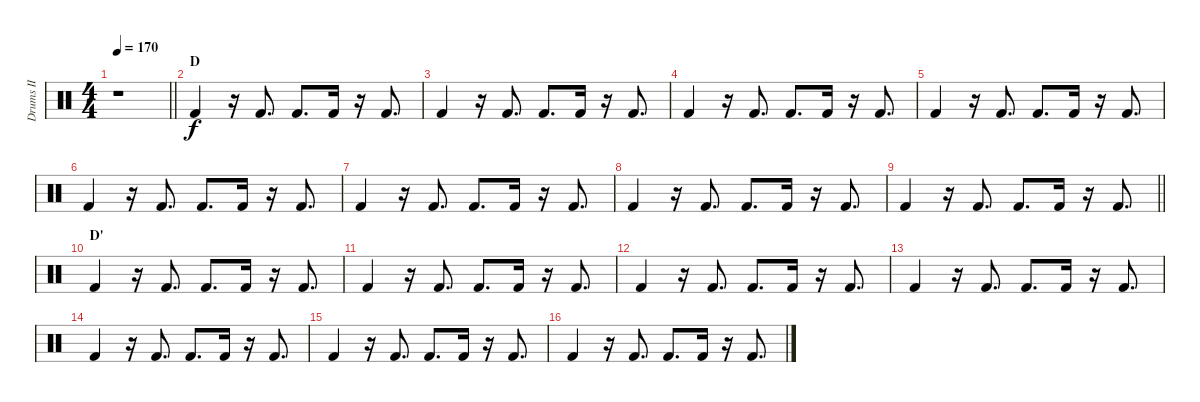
\track ("Drums II" "Drums II") {instrument percussion}
\staff {score}
\articulation defaults
\ts (4 4)
\tempo 170
\clef neutral
\barLineRight lightlight
\ks c
r.1{dy f} |
\section ("" "D")
"Kick (hit) 2".4 r.16 "Kick (hit) 2".8{d} "Kick (hit) 2".8{d} "Kick (hit) 2".16 r.16 "Kick (hit) 2".8{d} |
"Kick (hit) 2".4 r.16 "Kick (hit) 2".8{d} "Kick (hit) 2".8{d} "Kick (hit) 2".16 r.16 "Kick (hit) 2".8{d} |
"Kick (hit) 2".4 r.16 "Kick (hit) 2".8{d} "Kick (hit) 2".8{d} "Kick (hit) 2".16 r.16 "Kick (hit) 2".8{d} |
"Kick (hit) 2".4 r.16 "Kick (hit) 2".8{d} "Kick (hit) 2".8{d} "Kick (hit) 2".16 r.16 "Kick (hit) 2".8{d} |
"Kick (hit) 2".4 r.16 "Kick (hit) 2".8{d} "Kick (hit) 2".8{d} "Kick (hit) 2".16 r.16 "Kick (hit) 2".8{d} |
"Kick (hit) 2".4 r.16 "Kick (hit) 2".8{d} "Kick (hit) 2".8{d} "Kick (hit) 2".16 r.16 "Kick (hit) 2".8{d} |
"Kick (hit) 2".4 r.16 "Kick (hit) 2".8{d} "Kick (hit) 2".8{d} "Kick (hit) 2".16 r.16 "Kick (hit) 2".8{d} |
\barLineRight lightlight "Kick (hit) 2".4
r.16 "Kick (hit) 2".8{d} "Kick (hit) 2".8{d} "Kick (hit) 2".16 r.16 "Kick (hit) 2".8{d} |
\section ("" "D'")
"Kick (hit) 2".4 r.16 "Kick (hit) 2".8{d} "Kick (hit) 2".8{d} "Kick (hit) 2".16 r.16 "Kick (hit) 2".8{d} |
"Kick (hit) 2".4 r.16 "Kick (hit) 2".8{d} "Kick (hit) 2".8{d} "Kick (hit) 2".16 r.16 "Kick (hit) 2".8{d} |
"Kick (hit) 2".4 r.16 "Kick (hit) 2".8{d} "Kick (hit) 2".8{d} "Kick (hit) 2".16 r.16 "Kick (hit) 2".8{d} |
"Kick (hit) 2".4 r.16 "Kick (hit) 2".8{d} "Kick (hit) 2".8{d} "Kick (hit) 2".16 r.16 "Kick (hit) 2".8{d} |
"Kick (hit) 2".4 r.16 "Kick (hit) 2".8{d} "Kick (hit) 2".8{d} "Kick (hit) 2".16 r.16 "Kick (hit) 2".8{d} |
"Kick (hit) 2".4 r.16 "Kick (hit) 2".8{d} "Kick (hit) 2".8{d} "Kick (hit) 2".16 r.16 "Kick (hit) 2".8{d} |
"Kick (hit) 2".4 r.16 "Kick (hit) 2".8{d} "Kick (hit) 2".8{d} "Kick (hit) 2".16 r.16 "Kick (hit) 2".8{d}
